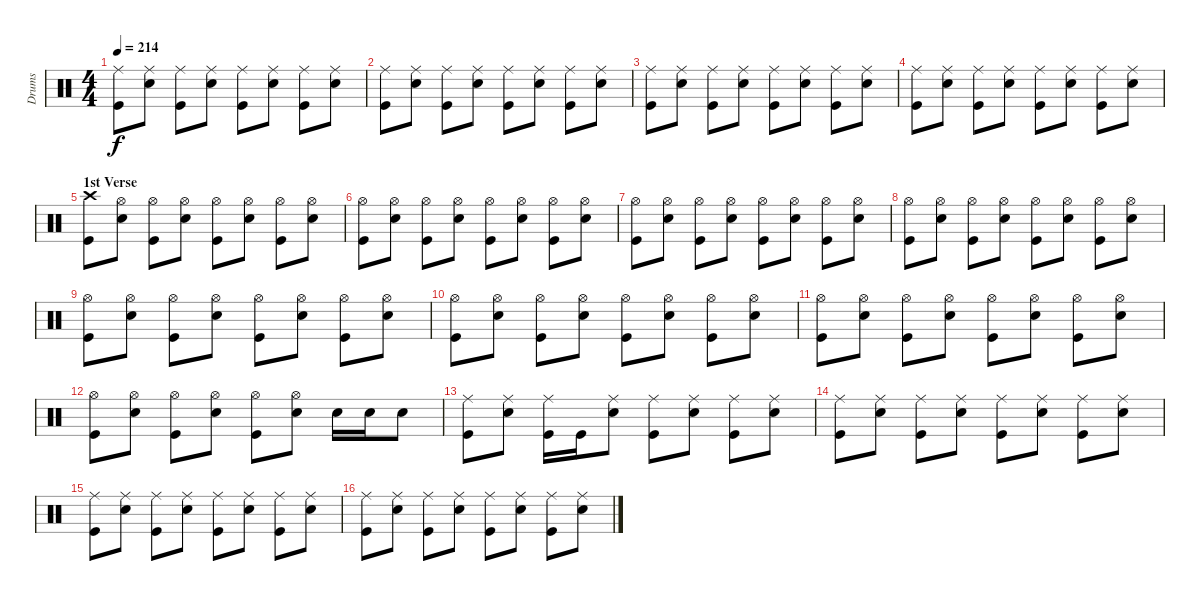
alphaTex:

\track ("Drums" "Drums") {instrument percussion}
\staff {score}
\articulation defaults
\ts (4 4)
\tempo 214
\clef neutral
\ks c
("Ride (middle)" "Kick (hit)").8{dy f} ("Ride (middle)" "Snare (hit) 2").8 ("Ride (middle)" "Kick (hit)").8 ("Ride (middle)" "Snare (hit) 2").8 ("Ride (middle)" "Kick (hit)").8 ("Ride (middle)" "Snare (hit) 2").8 ("Ride (middle)" "Kick (hit)").8 ("Ride (middle)" "Snare (hit) 2").8 |
("Ride (middle)" "Kick (hit)").8 ("Ride (middle)" "Snare (hit) 2").8 ("Ride (middle)" "Kick (hit)").8 ("Ride (middle)" "Snare (hit) 2").8 ("Ride (middle)" "Kick (hit)").8 ("Ride (middle)" "Snare (hit) 2").8 ("Ride (middle)" "Kick (hit)").8 ("Ride (middle)" "Snare (hit) 2").8 |
("Ride (middle)" "Kick (hit)").8 ("Ride (middle)" "Snare (hit) 2").8 ("Ride (middle)" "Kick (hit)").8 ("Ride (middle)" "Snare (hit) 2").8 ("Ride (middle)" "Kick (hit)").8 ("Ride (middle)" "Snare (hit) 2").8 ("Ride (middle)" "Kick (hit)").8 ("Ride (middle)" "Snare (hit) 2").8 |
("Ride (middle)" "Kick (hit)").8 ("Ride (middle)" "Snare (hit) 2").8 ("Ride (middle)" "Kick (hit)").8 ("Ride (middle)" "Snare (hit) 2").8 ("Ride (middle)" "Kick (hit)").8 ("Ride (middle)" "Snare (hit) 2").8 ("Ride (middle)" "Kick (hit)").8 ("Ride (middle)" "Snare (hit) 2").8 |
\section ("" "1st Verse")
("Crash high (hit)" "Kick (hit)").8 ("Hi-Hat (open)" "Snare (hit) 2").8 ("Hi-Hat (open)" "Kick (hit)").8 ("Hi-Hat (open)" "Snare (hit) 2").8 ("Hi-Hat (open)" "Kick (hit)").8 ("Hi-Hat (open)" "Snare (hit) 2").8 ("Hi-Hat (open)" "Kick (hit)").8 ("Hi-Hat (open)" "Snare (hit) 2").8 |
("Hi-Hat (open)" "Kick (hit)").8 ("Hi-Hat (open)" "Snare (hit) 2").8 ("Hi-Hat (open)" "Kick (hit)").8 ("Hi-Hat (open)" "Snare (hit) 2").8 ("Hi-Hat (open)" "Kick (hit)").8 ("Hi-Hat (open)" "Snare (hit) 2").8 ("Hi-Hat (open)" "Kick (hit)").8 ("Hi-Hat (open)" "Snare (hit) 2").8 |
("Hi-Hat (open)" "Kick (hit)").8 ("Hi-Hat (open)" "Snare (hit) 2").8 ("Hi-Hat (open)" "Kick (hit)").8 ("Hi-Hat (open)" "Snare (hit) 2").8 ("Hi-Hat (open)" "Kick (hit)").8 ("Hi-Hat (open)" "Snare (hit) 2").8 ("Hi-Hat (open)" "Kick (hit)").8 ("Hi-Hat (open)" "Snare (hit) 2").8 |
("Hi-Hat (open)" "Kick (hit)").8 ("Hi-Hat (open)" "Snare (hit) 2").8 ("Hi-Hat (open)" "Kick (hit)").8 ("Hi-Hat (open)" "Snare (hit) 2").8 ("Hi-Hat (open)" "Kick (hit)").8 ("Hi-Hat (open)" "Snare (hit) 2").8 ("Hi-Hat (open)" "Kick (hit)").8 ("Hi-Hat (open)" "Snare (hit) 2").8 |
("Hi-Hat (open)" "Kick (hit)").8 ("Hi-Hat (open)" "Snare (hit) 2").8 ("Hi-Hat (open)" "Kick (hit)").8 ("Hi-Hat (open)" "Snare (hit) 2").8 ("Hi-Hat (open)" "Kick (hit)").8 ("Hi-Hat (open)" "Snare (hit) 2").8 ("Hi-Hat (open)" "Kick (hit)").8 ("Hi-Hat (open)" "Snare (hit) 2").8 |
("Hi-Hat (open)" "Kick (hit)").8 ("Hi-Hat (open)" "Snare (hit) 2").8 ("Hi-Hat (open)" "Kick (hit)").8 ("Hi-Hat (open)" "Snare (hit) 2").8 ("Hi-Hat (open)" "Kick (hit)").8 ("Hi-Hat (open)" "Snare (hit) 2").8 ("Hi-Hat (open)" "Kick (hit)").8 ("Hi-Hat (open)" "Snare (hit) 2").8 |
("Hi-Hat (open)" "Kick (hit)").8 ("Hi-Hat (open)" "Snare (hit) 2").8 ("Hi-Hat (open)" "Kick (hit)").8 ("Hi-Hat (open)" "Snare (hit) 2").8 ("Hi-Hat (open)" "Kick (hit)").8 ("Hi-Hat (open)" "Snare (hit) 2").8 ("Hi-Hat (open)" "Kick (hit)").8 ("Hi-Hat (open)" "Snare (hit) 2").8 |
("Hi-Hat (open)" "Kick (hit)").8 ("Hi-Hat (open)" "Snare (hit) 2").8 ("Hi-Hat (open)" "Kick (hit)").8 ("Hi-Hat (open)" "Snare (hit) 2").8 ("Hi-Hat (open)" "Kick (hit)").8 ("Hi-Hat (open)" "Snare (hit) 2").8 "Snare (hit) 2".16 "Snare (hit) 2".16 "Snare (hit) 2".8 |
("Ride (middle)" "Kick (hit)").8 ("Ride (middle)" "Snare (hit) 2").8 ("Ride (middle)" "Kick (hit)").16 "Kick (hit)".16 ("Ride (middle)" "Snare (hit) 2").8 ("Ride (middle)" "Kick (hit)").8 ("Ride (middle)" "Snare (hit) 2").8 ("Ride (middle)" "Kick (hit)").8 ("Ride (middle)" "Snare (hit) 2").8 |
("Ride (middle)" "Kick (hit)").8 ("Ride (middle)" "Snare (hit) 2").8 ("Ride (middle)" "Kick (hit)").8 ("Ride (middle)" "Snare (hit) 2").8 ("Ride (middle)" "Kick (hit)").8 ("Ride (middle)" "Snare (hit) 2").8 ("Ride (middle)" "Kick (hit)").8 ("Ride (middle)" "Snare (hit) 2").8 |
("Ride (middle)" "Kick (hit)").8 ("Ride (middle)" "Snare (hit) 2").8 ("Ride (middle)" "Kick (hit)").8 ("Ride (middle)" "Snare (hit) 2").8 ("Ride (middle)" "Kick (hit)").8 ("Ride (middle)" "Snare (hit) 2").8 ("Ride (middle)" "Kick (hit)").8 ("Ride (middle)" "Snare (hit) 2").8 |
("Ride (middle)" "Kick (hit)").8 ("Ride (middle)" "Snare (hit) 2").8 ("Ride (middle)" "Kick (hit)").8 ("Ride (middle)" "Snare (hit) 2").8 ("Ride (middle)" "Kick (hit)").8 ("Ride (middle)" "Snare (hit) 2").8 ("Ride (middle)" "Kick (hit)").8 ("Ride (middle)" "Snare (hit) 2").8
